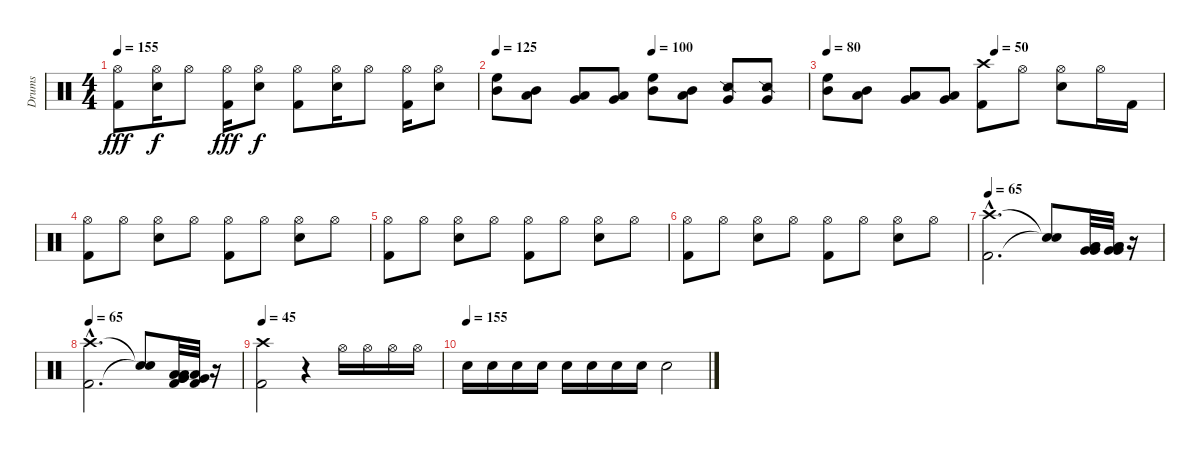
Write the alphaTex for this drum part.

\track ("Drums" "Drums") {instrument percussion}
\staff {score}
\articulation defaults
\ts (4 4)
\tempo 155
\clef neutral
\ks c
("Kick (hit) 2" "Hi-Hat (open)").8{dy fff} ("Electric Snare (hit)" "Hi-Hat (open)").16{dy f} "Hi-Hat (open)".8 ("Kick (hit) 2" "Hi-Hat (open)").16{dy fff} ("Electric Snare (hit)" "Hi-Hat (open)").8{dy f} ("Kick (hit) 2" "Hi-Hat (open)").8 ("Electric Snare (hit)" "Hi-Hat (open)").16 "Hi-Hat (open)".8 ("Kick (hit) 2" "Hi-Hat (open)").16 ("Electric Snare (hit)" "Hi-Hat (open)").8 |
\tempo 125
\tempo (100 0.5)
("High Floor Tom (hit)" "Mid Tom (hit)").8 ("Mid Tom (hit)" "Low Tom (hit)").8 ("Very Low Tom (hit)" "Low Floor Tom (hit)").8 ("Very Low Tom (hit)" "Low Floor Tom (hit)").8 ("High Floor Tom (hit)" "Mid Tom (hit)").8 ("Mid Tom (hit)" "Low Tom (hit)").8 ("Very Low Tom (hit)" "Snare (side stick) 2").8 ("Very Low Tom (hit)" "Snare (side stick) 2").8 |
\tempo 80
\tempo (50 0.5)
("High Floor Tom (hit)" "Mid Tom (hit)").8 ("Mid Tom (hit)" "Low Tom (hit)").8 ("Very Low Tom (hit)" "Low Floor Tom (hit)").8 ("Very Low Tom (hit)" "Low Floor Tom (hit)").8 ("Kick (hit) 2" "Crash high (hit)").8 "Hi-Hat (open)".8 ("Electric Snare (hit)" "Hi-Hat (open)").8 "Hi-Hat (open)".16 "Kick (hit) 2".16 |
("Kick (hit) 2" "Hi-Hat (open)").8 "Hi-Hat (open)".8 ("Electric Snare (hit)" "Hi-Hat (open)").8 "Hi-Hat (open)".8 ("Kick (hit) 2" "Hi-Hat (open)").8 "Hi-Hat (open)".8 ("Electric Snare (hit)" "Hi-Hat (open)").8 "Hi-Hat (open)".8 |
("Kick (hit) 2" "Hi-Hat (open)").8 "Hi-Hat (open)".8 ("Electric Snare (hit)" "Hi-Hat (open)").8 "Hi-Hat (open)".8 ("Kick (hit) 2" "Hi-Hat (open)").8 "Hi-Hat (open)".8 ("Electric Snare (hit)" "Hi-Hat (open)").8 "Hi-Hat (open)".8 |
("Kick (hit) 2" "Hi-Hat (open)").8 "Hi-Hat (open)".8 ("Electric Snare (hit)" "Hi-Hat (open)").8 "Hi-Hat (open)".8 ("Kick (hit) 2" "Hi-Hat (open)").8 "Hi-Hat (open)".8 ("Electric Snare (hit)" "Hi-Hat (open)").8 "Hi-Hat (open)".8 |
\tempo 65
("Kick (hit) 2" "Crash high (hit)"{hac}).2{d} ("Snare (hit)"{t} "Snare (hit)"{t}).8 ("Very Low Tom (hit)" "Low Floor Tom (hit)" "Very Low Tom (hit)" "Low Floor Tom (hit)").32 ("Very Low Tom (hit)" "Low Floor Tom (hit)" "Very Low Tom (hit)" "Low Floor Tom (hit)").32 r.16 |
\tempo 65
("Kick (hit) 2" "Crash high (hit)"{hac}).2{d} ("Snare (hit)"{t} "Snare (hit)"{t}).8 ("Kick (hit) 2" "Very Low Tom (hit)" "Low Floor Tom (hit)" "Very Low Tom (hit)" "Low Floor Tom (hit)").32 ("Kick (hit) 2" "Very Low Tom (hit)" "Low Floor Tom (hit)").32 r.16 |
\tempo 45
("Kick (hit) 2" "Crash high (hit)").2 r.4 "Hi-Hat (open)".16 "Hi-Hat (open)".16 "Hi-Hat (open)".16 "Hi-Hat (open)".16 |
\tempo (155)
"Electric Snare (hit)".16 "Electric Snare (hit)".16 "Electric Snare (hit)".16 "Electric Snare (hit)".16 "Electric Snare (hit)".16 "Electric Snare (hit)".16 "Electric Snare (hit)".16 "Electric Snare (hit)".16 "Electric Snare (hit)".2
